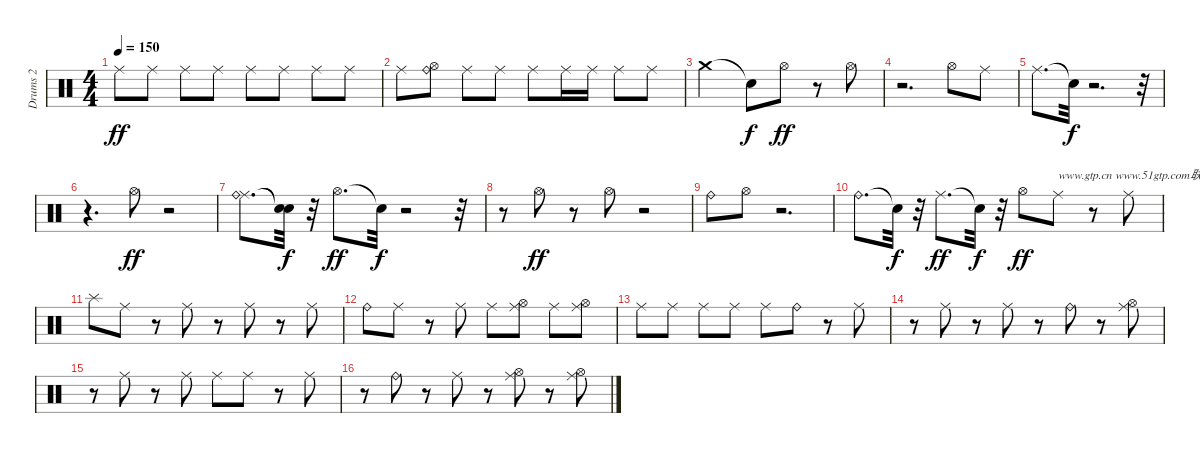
\track ("Drums 2" "Drums 2") {instrument percussion}
\staff {score}
\articulation defaults
\ts (4 4)
\tempo 150
\clef neutral
\ks c "Ride (middle)".8{dy ff} "Ride (middle)".8 "Ride (middle)".8 "Ride (middle)".8 "Ride (middle)".8 "Ride (middle)".8 "Ride (middle)".8 "Ride (middle)".8
|
"Ride (middle)".8 ("Hi-Hat (open)" "Ride (bell)").8 "Ride (middle)".8 "Ride (middle)".8 "Ride (middle)".8 "Ride (middle)".16 "Ride (middle)".16 "Ride (middle)".8 "Ride (middle)".8 |
"Crash medium (hit)".2 "Snare (hit)"{t}.8{dy f} "Hi-Hat (open)".8{dy ff} r.8 "Hi-Hat (open)".8 |
r.2{d} "Hi-Hat (open)".8 "Ride (middle)".8 |
"Ride (middle)".8{d} "Snare (hit)"{t}.32{dy f} r.2{d} r.32 |
r.4{d} "Hi-Hat (open)".8{dy ff} r.2 |
("Ride (middle)" "Ride (bell)").8{d} ("Snare (hit)"{t} "Snare (hit)"{t}).32{dy f} r.32 "Hi-Hat (open)".8{d dy ff} "Snare (hit)"{t}.32{dy f} r.2 r.32 |
r.8 "Hi-Hat (open)".8{dy ff} r.8 "Hi-Hat (open)".8 r.2 |
"Ride (bell)".8 "Hi-Hat (open)".8 r.2{d} |
"Ride (bell)".8{d} "Snare (hit)"{t}.32{dy f} r.32 "Ride (middle)".8{d dy ff} "Snare (hit)"{t}.32{dy f} r.32 "Hi-Hat (open)".8{dy ff} "Ride (middle)".8{txt "www.gtp.cn www.51gtp.com联合为您提供优秀的GTP!"} r.8 "Ride (middle)".8 |
"Splash (hit)".8 "Ride (middle)".8 r.8 "Ride (middle)".8 r.8 "Ride (middle)".8 r.8 "Ride (middle)".8 |
"Ride (bell)".8 "Ride (middle)".8 r.8 "Ride (middle)".8 "Ride (middle)".8 ("Hi-Hat (open)" "Ride (middle)").8 "Ride (middle)".8 ("Hi-Hat (open)" "Ride (middle)").8 |
"Ride (middle)".8 "Ride (middle)".8 "Ride (middle)".8 "Ride (middle)".8 "Ride (middle)".8 "Ride (bell)".8 r.8 "Ride (middle)".8 |
r.8 "Ride (middle)".8 r.8 "Ride (middle)".8 r.8 "Ride (bell)".8 r.8 ("Hi-Hat (open)" "Ride (middle)").8 |
r.8 "Ride (middle)".8 r.8 "Ride (middle)".8 "Ride (middle)".8 "Ride (middle)".8 r.8 "Ride (middle)".8 |
r.8 "Ride (bell)".8 r.8 "Ride (middle)".8 r.8 ("Hi-Hat (open)" "Ride (middle)").8 r.8 ("Hi-Hat (open)" "Ride (middle)").8
